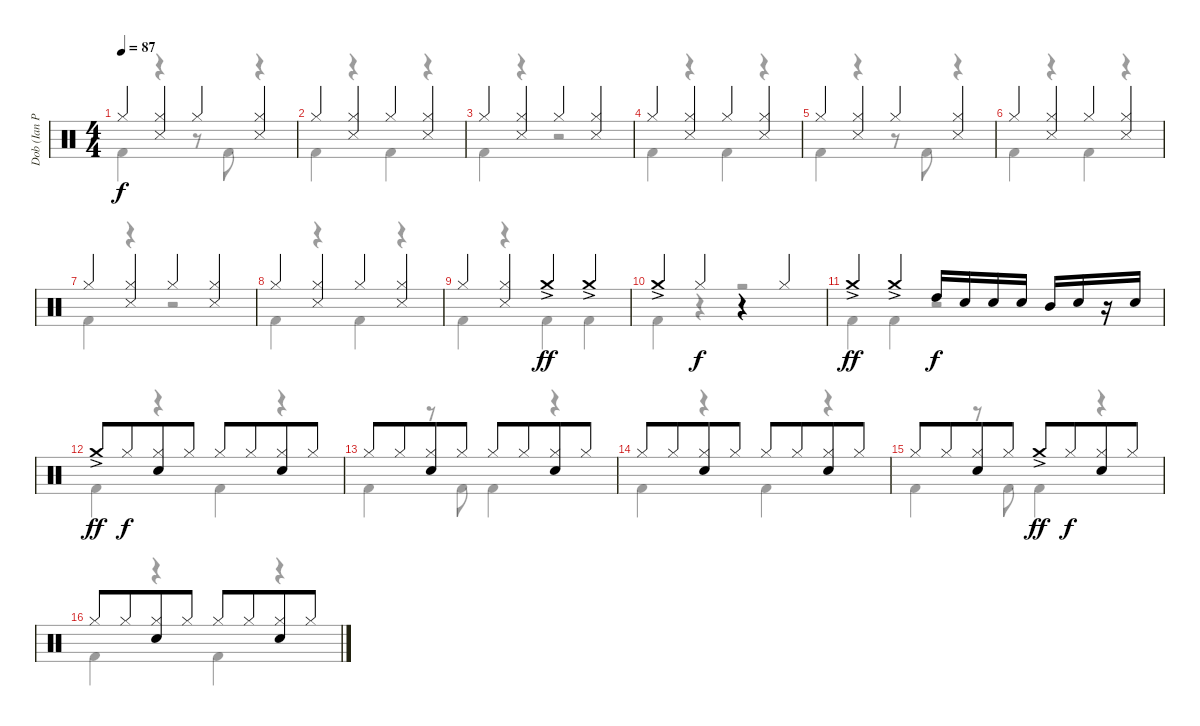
\track ("Dob (Ian Paice)" "Dob (Ian P") {instrument percussion}
\staff {score}
\articulation defaults
\voice
\ts (4 4)
\tempo 87
\clef neutral
\ks c "Hi-Hat (closed)".4{dy f}
("Hi-Hat (closed)" "Snare (side stick) 3").4 "Hi-Hat (closed)".4 ("Hi-Hat (closed)" "Snare (side stick) 3").4 |
"Hi-Hat (closed)".4 ("Hi-Hat (closed)" "Snare (side stick) 3").4 "Hi-Hat (closed)".4 ("Hi-Hat (closed)" "Snare (side stick) 3").4 |
"Hi-Hat (closed)".4 ("Hi-Hat (closed)" "Snare (side stick) 3").4 "Hi-Hat (closed)".4 ("Hi-Hat (closed)" "Snare (side stick) 3").4 |
"Hi-Hat (closed)".4 ("Hi-Hat (closed)" "Snare (side stick) 3").4 "Hi-Hat (closed)".4 ("Hi-Hat (closed)" "Snare (side stick) 3").4 |
"Hi-Hat (closed)".4 ("Hi-Hat (closed)" "Snare (side stick) 3").4 "Hi-Hat (closed)".4 ("Hi-Hat (closed)" "Snare (side stick) 3").4 |
"Hi-Hat (closed)".4 ("Hi-Hat (closed)" "Snare (side stick) 3").4 "Hi-Hat (closed)".4 ("Hi-Hat (closed)" "Snare (side stick) 3").4 |
"Hi-Hat (closed)".4 ("Hi-Hat (closed)" "Snare (side stick) 3").4 "Hi-Hat (closed)".4 ("Hi-Hat (closed)" "Snare (side stick) 3").4 |
"Hi-Hat (closed)".4 ("Hi-Hat (closed)" "Snare (side stick) 3").4 "Hi-Hat (closed)".4 ("Hi-Hat (closed)" "Snare (side stick) 3").4 |
"Hi-Hat (closed)".4 ("Hi-Hat (closed)" "Snare (side stick) 3").4 "Crash medium (hit)"{ac}.4{dy ff} "Crash medium (hit)"{ac}.4 |
"Crash medium (hit)"{ac}.4 "Hi-Hat (closed)".4{dy f} r.4 "Hi-Hat (closed)".4 |
"Crash medium (hit)"{ac}.4{dy ff} "Crash medium (hit)"{ac}.4 "High Tom (hit)".16{dy f} "Electric Snare (hit)".16 "Electric Snare (hit)".16 "Electric Snare (hit)".16 "Mid Tom (hit)".16 "Electric Snare (hit)".16 r.16 "Electric Snare (hit)".16 |
"Crash medium (hit)"{ac}.8{dy ff} "Hi-Hat (closed)".8{dy f beam merge} ("Hi-Hat (closed)" "Electric Snare (hit)").8 "Hi-Hat (closed)".8 "Hi-Hat (closed)".8 "Hi-Hat (closed)".8{beam merge} ("Hi-Hat (closed)" "Electric Snare (hit)").8 "Hi-Hat (closed)".8 |
"Hi-Hat (closed)".8 "Hi-Hat (closed)".8{beam merge} ("Hi-Hat (closed)" "Electric Snare (hit)").8 "Hi-Hat (closed)".8 "Hi-Hat (closed)".8 "Hi-Hat (closed)".8{beam merge} ("Hi-Hat (closed)" "Electric Snare (hit)").8 "Hi-Hat (closed)".8 |
"Hi-Hat (closed)".8 "Hi-Hat (closed)".8{beam merge} ("Hi-Hat (closed)" "Electric Snare (hit)").8 "Hi-Hat (closed)".8 "Hi-Hat (closed)".8 "Hi-Hat (closed)".8{beam merge} ("Hi-Hat (closed)" "Electric Snare (hit)").8 "Hi-Hat (closed)".8 |
"Hi-Hat (closed)".8 "Hi-Hat (closed)".8{beam merge} ("Hi-Hat (closed)" "Electric Snare (hit)").8 "Hi-Hat (closed)".8 "Crash medium (hit)"{ac}.8{dy ff} "Hi-Hat (closed)".8{dy f beam merge} ("Hi-Hat (closed)" "Electric Snare (hit)").8 "Hi-Hat (closed)".8 |
"Hi-Hat (closed)".8 "Hi-Hat (closed)".8{beam merge} ("Hi-Hat (closed)" "Electric Snare (hit)").8 "Hi-Hat (closed)".8 "Hi-Hat (closed)".8 "Hi-Hat (closed)".8{beam merge} ("Hi-Hat (closed)" "Electric Snare (hit)").8 "Hi-Hat (closed)".8
\voice
\clef neutral
\ottava regular
\simile none
\ks c "Kick (hit) 2".4{dy f}
r.4 r.8 "Kick (hit) 2".8 r.4 |
"Kick (hit) 2".4 r.4 "Kick (hit) 2".4 r.4 |
"Kick (hit) 2".4 r.4 r.2 |
"Kick (hit) 2".4 r.4 "Kick (hit) 2".4 r.4 |
"Kick (hit) 2".4 r.4 r.8 "Kick (hit) 2".8 r.4 |
"Kick (hit) 2".4 r.4 "Kick (hit) 2".4 r.4 |
"Kick (hit) 2".4 r.4 r.2 |
"Kick (hit) 2".4 r.4 "Kick (hit) 2".4 r.4 |
"Kick (hit) 2".4 r.4 "Kick (hit) 2".4 "Kick (hit) 2".4 |
"Kick (hit) 2".4 r.4 r.2 |
"Kick (hit) 2".4 "Kick (hit) 2".4 r.2 |
"Kick (hit) 2".4 r.4 "Kick (hit) 2".4 r.4 |
"Kick (hit) 2".4 r.8 "Kick (hit) 2".8 "Kick (hit) 2".4 r.4 |
"Kick (hit) 2".4 r.4 "Kick (hit) 2".4 r.4 |
"Kick (hit) 2".4 r.8 "Kick (hit) 2".8 "Kick (hit) 2".4 r.4 |
"Kick (hit) 2".4 r.4 "Kick (hit) 2".4 r.4
